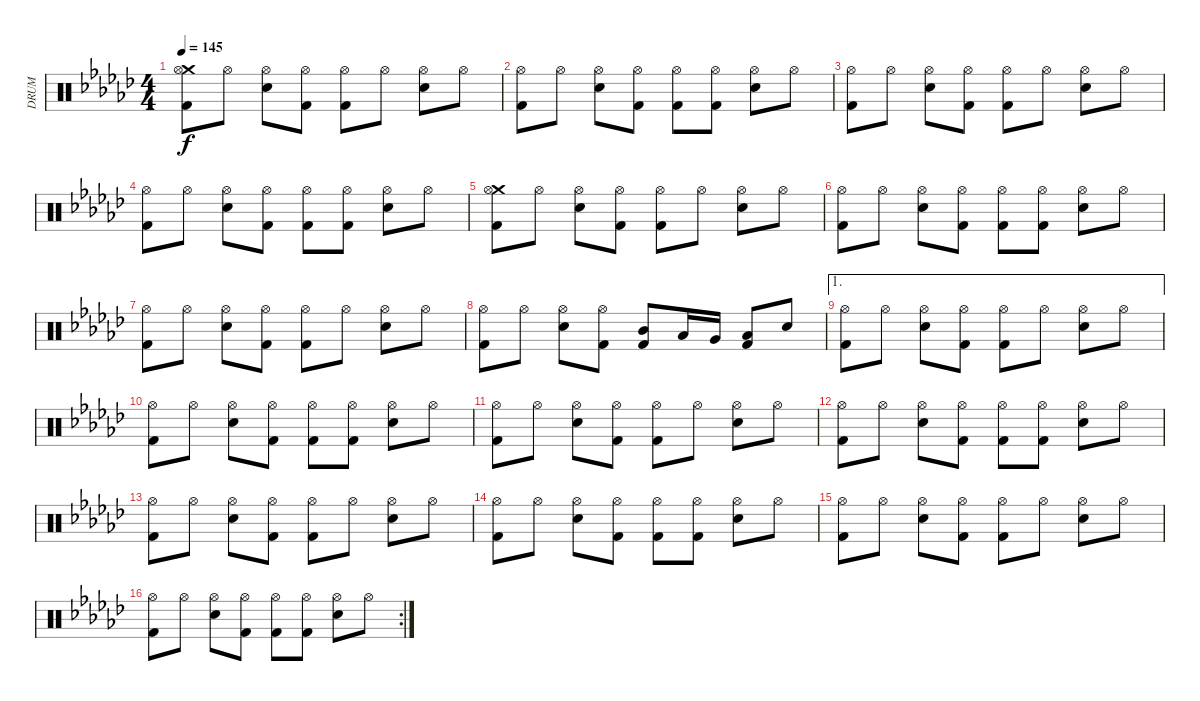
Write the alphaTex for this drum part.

\track ("DRUM" "DRUM") {instrument percussion}
\staff {score}
\articulation defaults
\ts (4 4)
\tempo 145
\clef neutral
\ks ebminor
("Crash medium (hit)" "Hi-Hat (open)" "Kick (hit) 2").8{dy f} "Hi-Hat (open)".8 ("Hi-Hat (open)" "Electric Snare (hit)").8 ("Hi-Hat (open)" "Kick (hit) 2").8 ("Hi-Hat (open)" "Kick (hit) 2").8 "Hi-Hat (open)".8 ("Hi-Hat (open)" "Electric Snare (hit)").8 "Hi-Hat (open)".8 |
("Hi-Hat (open)" "Kick (hit) 2").8 "Hi-Hat (open)".8 ("Hi-Hat (open)" "Electric Snare (hit)").8 ("Hi-Hat (open)" "Kick (hit) 2").8 ("Hi-Hat (open)" "Kick (hit) 2").8 ("Hi-Hat (open)" "Kick (hit) 2").8 ("Hi-Hat (open)" "Electric Snare (hit)").8 "Hi-Hat (open)".8 |
("Hi-Hat (open)" "Kick (hit) 2").8 "Hi-Hat (open)".8 ("Hi-Hat (open)" "Electric Snare (hit)").8 ("Hi-Hat (open)" "Kick (hit) 2").8 ("Hi-Hat (open)" "Kick (hit) 2").8 "Hi-Hat (open)".8 ("Hi-Hat (open)" "Electric Snare (hit)").8 "Hi-Hat (open)".8 |
("Hi-Hat (open)" "Kick (hit) 2").8 "Hi-Hat (open)".8 ("Hi-Hat (open)" "Electric Snare (hit)").8 ("Hi-Hat (open)" "Kick (hit) 2").8 ("Hi-Hat (open)" "Kick (hit) 2").8 ("Hi-Hat (open)" "Kick (hit) 2").8 ("Hi-Hat (open)" "Electric Snare (hit)").8 "Hi-Hat (open)".8 |
("Crash medium (hit)" "Hi-Hat (open)" "Kick (hit) 2").8 "Hi-Hat (open)".8 ("Hi-Hat (open)" "Electric Snare (hit)").8 ("Hi-Hat (open)" "Kick (hit) 2").8 ("Hi-Hat (open)" "Kick (hit) 2").8 "Hi-Hat (open)".8 ("Hi-Hat (open)" "Electric Snare (hit)").8 "Hi-Hat (open)".8 |
("Hi-Hat (open)" "Kick (hit) 2").8 "Hi-Hat (open)".8 ("Hi-Hat (open)" "Electric Snare (hit)").8 ("Hi-Hat (open)" "Kick (hit) 2").8 ("Hi-Hat (open)" "Kick (hit) 2").8 ("Hi-Hat (open)" "Kick (hit) 2").8 ("Hi-Hat (open)" "Electric Snare (hit)").8 "Hi-Hat (open)".8 |
("Hi-Hat (open)" "Kick (hit) 2").8 "Hi-Hat (open)".8 ("Hi-Hat (open)" "Electric Snare (hit)").8 ("Hi-Hat (open)" "Kick (hit) 2").8 ("Hi-Hat (open)" "Kick (hit) 2").8 "Hi-Hat (open)".8 ("Hi-Hat (open)" "Electric Snare (hit)").8 "Hi-Hat (open)".8 |
("Hi-Hat (open)" "Kick (hit) 2").8 "Hi-Hat (open)".8 ("Hi-Hat (open)" "Electric Snare (hit)").8 ("Hi-Hat (open)" "Kick (hit) 2").8 ("Mid Tom (hit)" "Kick (hit) 2").8 "Low Tom (hit)".16 "Very Low Tom (hit)".16 ("Low Floor Tom (hit)" "Kick (hit) 2").8 "Electric Snare (hit)".8 |
\ae 1
("Hi-Hat (open)" "Kick (hit) 2").8 "Hi-Hat (open)".8 ("Hi-Hat (open)" "Electric Snare (hit)").8 ("Hi-Hat (open)" "Kick (hit) 2").8 ("Hi-Hat (open)" "Kick (hit) 2").8 "Hi-Hat (open)".8 ("Hi-Hat (open)" "Electric Snare (hit)").8 "Hi-Hat (open)".8 |
("Hi-Hat (open)" "Kick (hit) 2").8 "Hi-Hat (open)".8 ("Hi-Hat (open)" "Electric Snare (hit)").8 ("Hi-Hat (open)" "Kick (hit) 2").8 ("Hi-Hat (open)" "Kick (hit) 2").8 ("Hi-Hat (open)" "Kick (hit) 2").8 ("Hi-Hat (open)" "Electric Snare (hit)").8 "Hi-Hat (open)".8 |
("Hi-Hat (open)" "Kick (hit) 2").8 "Hi-Hat (open)".8 ("Hi-Hat (open)" "Electric Snare (hit)").8 ("Hi-Hat (open)" "Kick (hit) 2").8 ("Hi-Hat (open)" "Kick (hit) 2").8 "Hi-Hat (open)".8 ("Hi-Hat (open)" "Electric Snare (hit)").8 "Hi-Hat (open)".8 |
("Hi-Hat (open)" "Kick (hit) 2").8 "Hi-Hat (open)".8 ("Hi-Hat (open)" "Electric Snare (hit)").8 ("Hi-Hat (open)" "Kick (hit) 2").8 ("Hi-Hat (open)" "Kick (hit) 2").8 ("Hi-Hat (open)" "Kick (hit) 2").8 ("Hi-Hat (open)" "Electric Snare (hit)").8 "Hi-Hat (open)".8 |
("Hi-Hat (open)" "Kick (hit) 2").8 "Hi-Hat (open)".8 ("Hi-Hat (open)" "Electric Snare (hit)").8 ("Hi-Hat (open)" "Kick (hit) 2").8 ("Hi-Hat (open)" "Kick (hit) 2").8 "Hi-Hat (open)".8 ("Hi-Hat (open)" "Electric Snare (hit)").8 "Hi-Hat (open)".8 |
("Hi-Hat (open)" "Kick (hit) 2").8 "Hi-Hat (open)".8 ("Hi-Hat (open)" "Electric Snare (hit)").8 ("Hi-Hat (open)" "Kick (hit) 2").8 ("Hi-Hat (open)" "Kick (hit) 2").8 ("Hi-Hat (open)" "Kick (hit) 2").8 ("Hi-Hat (open)" "Electric Snare (hit)").8 "Hi-Hat (open)".8 |
("Hi-Hat (open)" "Kick (hit) 2").8 "Hi-Hat (open)".8 ("Hi-Hat (open)" "Electric Snare (hit)").8 ("Hi-Hat (open)" "Kick (hit) 2").8 ("Hi-Hat (open)" "Kick (hit) 2").8 "Hi-Hat (open)".8 ("Hi-Hat (open)" "Electric Snare (hit)").8 "Hi-Hat (open)".8 |
\rc 2
("Hi-Hat (open)" "Kick (hit) 2").8 "Hi-Hat (open)".8 ("Hi-Hat (open)" "Electric Snare (hit)").8 ("Hi-Hat (open)" "Kick (hit) 2").8 ("Hi-Hat (open)" "Kick (hit) 2").8 ("Hi-Hat (open)" "Kick (hit) 2").8 ("Hi-Hat (open)" "Electric Snare (hit)").8 "Hi-Hat (open)".8
